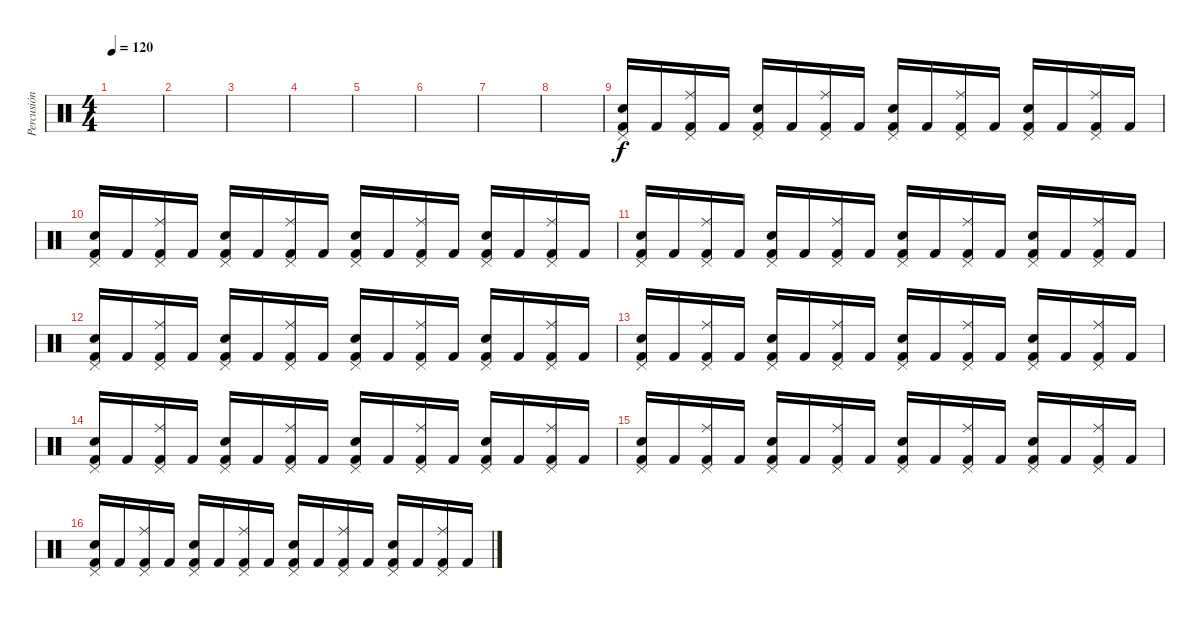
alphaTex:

\track ("Percusión" "Percusión") {instrument percussion}
\staff {score}
\articulation defaults
\ts (4 4)
\tempo 120
\clef neutral
\ks c
|
|
|
|
|
|
|
|
("Snare (hit) 2" "Pedal Hi-Hat (hit)" "Kick (hit) 2").16 "Kick (hit) 2".16 ("Ride (middle)" "Pedal Hi-Hat (hit)" "Kick (hit) 2").16 "Kick (hit) 2".16 ("Snare (hit) 2" "Pedal Hi-Hat (hit)" "Kick (hit) 2").16 "Kick (hit) 2".16 ("Ride (middle)" "Pedal Hi-Hat (hit)" "Kick (hit) 2").16 "Kick (hit) 2".16 ("Snare (hit) 2" "Pedal Hi-Hat (hit)" "Kick (hit) 2").16 "Kick (hit) 2".16 ("Ride (middle)" "Pedal Hi-Hat (hit)" "Kick (hit) 2").16 "Kick (hit) 2".16 ("Snare (hit) 2" "Pedal Hi-Hat (hit)" "Kick (hit) 2").16 "Kick (hit) 2".16 ("Ride (middle)" "Pedal Hi-Hat (hit)" "Kick (hit) 2").16 "Kick (hit) 2".16 |
("Snare (hit) 2" "Pedal Hi-Hat (hit)" "Kick (hit) 2").16 "Kick (hit) 2".16 ("Ride (middle)" "Pedal Hi-Hat (hit)" "Kick (hit) 2").16 "Kick (hit) 2".16 ("Snare (hit) 2" "Pedal Hi-Hat (hit)" "Kick (hit) 2").16 "Kick (hit) 2".16 ("Ride (middle)" "Pedal Hi-Hat (hit)" "Kick (hit) 2").16 "Kick (hit) 2".16 ("Snare (hit) 2" "Pedal Hi-Hat (hit)" "Kick (hit) 2").16 "Kick (hit) 2".16 ("Ride (middle)" "Pedal Hi-Hat (hit)" "Kick (hit) 2").16 "Kick (hit) 2".16 ("Snare (hit) 2" "Pedal Hi-Hat (hit)" "Kick (hit) 2").16 "Kick (hit) 2".16 ("Ride (middle)" "Pedal Hi-Hat (hit)" "Kick (hit) 2").16 "Kick (hit) 2".16 |
("Snare (hit) 2" "Pedal Hi-Hat (hit)" "Kick (hit) 2").16 "Kick (hit) 2".16 ("Ride (middle)" "Pedal Hi-Hat (hit)" "Kick (hit) 2").16 "Kick (hit) 2".16 ("Snare (hit) 2" "Pedal Hi-Hat (hit)" "Kick (hit) 2").16 "Kick (hit) 2".16 ("Ride (middle)" "Pedal Hi-Hat (hit)" "Kick (hit) 2").16 "Kick (hit) 2".16 ("Snare (hit) 2" "Pedal Hi-Hat (hit)" "Kick (hit) 2").16 "Kick (hit) 2".16 ("Ride (middle)" "Pedal Hi-Hat (hit)" "Kick (hit) 2").16 "Kick (hit) 2".16 ("Snare (hit) 2" "Pedal Hi-Hat (hit)" "Kick (hit) 2").16 "Kick (hit) 2".16 ("Ride (middle)" "Pedal Hi-Hat (hit)" "Kick (hit) 2").16 "Kick (hit) 2".16 |
("Snare (hit) 2" "Pedal Hi-Hat (hit)" "Kick (hit) 2").16 "Kick (hit) 2".16 ("Ride (middle)" "Pedal Hi-Hat (hit)" "Kick (hit) 2").16 "Kick (hit) 2".16 ("Snare (hit) 2" "Pedal Hi-Hat (hit)" "Kick (hit) 2").16 "Kick (hit) 2".16 ("Ride (middle)" "Pedal Hi-Hat (hit)" "Kick (hit) 2").16 "Kick (hit) 2".16 ("Snare (hit) 2" "Pedal Hi-Hat (hit)" "Kick (hit) 2").16 "Kick (hit) 2".16 ("Ride (middle)" "Pedal Hi-Hat (hit)" "Kick (hit) 2").16 "Kick (hit) 2".16 ("Snare (hit) 2" "Pedal Hi-Hat (hit)" "Kick (hit) 2").16 "Kick (hit) 2".16 ("Ride (middle)" "Pedal Hi-Hat (hit)" "Kick (hit) 2").16 "Kick (hit) 2".16 |
("Snare (hit) 2" "Pedal Hi-Hat (hit)" "Kick (hit) 2").16 "Kick (hit) 2".16 ("Ride (middle)" "Pedal Hi-Hat (hit)" "Kick (hit) 2").16 "Kick (hit) 2".16 ("Snare (hit) 2" "Pedal Hi-Hat (hit)" "Kick (hit) 2").16 "Kick (hit) 2".16 ("Ride (middle)" "Pedal Hi-Hat (hit)" "Kick (hit) 2").16 "Kick (hit) 2".16 ("Snare (hit) 2" "Pedal Hi-Hat (hit)" "Kick (hit) 2").16 "Kick (hit) 2".16 ("Ride (middle)" "Pedal Hi-Hat (hit)" "Kick (hit) 2").16 "Kick (hit) 2".16 ("Snare (hit) 2" "Pedal Hi-Hat (hit)" "Kick (hit) 2").16 "Kick (hit) 2".16 ("Ride (middle)" "Pedal Hi-Hat (hit)" "Kick (hit) 2").16 "Kick (hit) 2".16 |
("Snare (hit) 2" "Pedal Hi-Hat (hit)" "Kick (hit) 2").16 "Kick (hit) 2".16 ("Ride (middle)" "Pedal Hi-Hat (hit)" "Kick (hit) 2").16 "Kick (hit) 2".16 ("Snare (hit) 2" "Pedal Hi-Hat (hit)" "Kick (hit) 2").16 "Kick (hit) 2".16 ("Ride (middle)" "Pedal Hi-Hat (hit)" "Kick (hit) 2").16 "Kick (hit) 2".16 ("Snare (hit) 2" "Pedal Hi-Hat (hit)" "Kick (hit) 2").16 "Kick (hit) 2".16 ("Ride (middle)" "Pedal Hi-Hat (hit)" "Kick (hit) 2").16 "Kick (hit) 2".16 ("Snare (hit) 2" "Pedal Hi-Hat (hit)" "Kick (hit) 2").16 "Kick (hit) 2".16 ("Ride (middle)" "Pedal Hi-Hat (hit)" "Kick (hit) 2").16 "Kick (hit) 2".16 |
("Snare (hit) 2" "Pedal Hi-Hat (hit)" "Kick (hit) 2").16 "Kick (hit) 2".16 ("Ride (middle)" "Pedal Hi-Hat (hit)" "Kick (hit) 2").16 "Kick (hit) 2".16 ("Snare (hit) 2" "Pedal Hi-Hat (hit)" "Kick (hit) 2").16 "Kick (hit) 2".16 ("Ride (middle)" "Pedal Hi-Hat (hit)" "Kick (hit) 2").16 "Kick (hit) 2".16 ("Snare (hit) 2" "Pedal Hi-Hat (hit)" "Kick (hit) 2").16 "Kick (hit) 2".16 ("Ride (middle)" "Pedal Hi-Hat (hit)" "Kick (hit) 2").16 "Kick (hit) 2".16 ("Snare (hit) 2" "Pedal Hi-Hat (hit)" "Kick (hit) 2").16 "Kick (hit) 2".16 ("Ride (middle)" "Pedal Hi-Hat (hit)" "Kick (hit) 2").16 "Kick (hit) 2".16 |
("Snare (hit) 2" "Pedal Hi-Hat (hit)" "Kick (hit) 2").16 "Kick (hit) 2".16 ("Ride (middle)" "Pedal Hi-Hat (hit)" "Kick (hit) 2").16 "Kick (hit) 2".16 ("Snare (hit) 2" "Pedal Hi-Hat (hit)" "Kick (hit) 2").16 "Kick (hit) 2".16 ("Ride (middle)" "Pedal Hi-Hat (hit)" "Kick (hit) 2").16 "Kick (hit) 2".16 ("Snare (hit) 2" "Pedal Hi-Hat (hit)" "Kick (hit) 2").16 "Kick (hit) 2".16 ("Ride (middle)" "Pedal Hi-Hat (hit)" "Kick (hit) 2").16 "Kick (hit) 2".16 ("Snare (hit) 2" "Pedal Hi-Hat (hit)" "Kick (hit) 2").16 "Kick (hit) 2".16 ("Ride (middle)" "Pedal Hi-Hat (hit)" "Kick (hit) 2").16 "Kick (hit) 2".16
